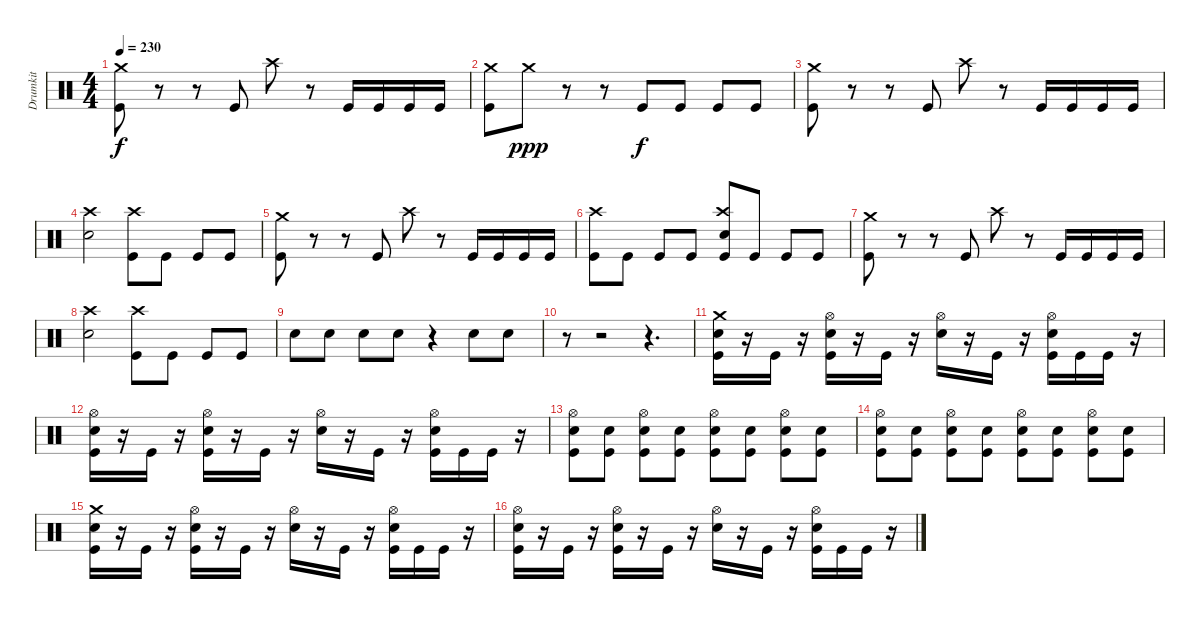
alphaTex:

\track ("Drumkit" "Drumkit") {instrument percussion}
\staff {score}
\articulation defaults
\ts (4 4)
\tempo 230
\clef neutral
\ks c
("Crash medium (hit)" "Kick (hit)").8{dy f} r.8 r.8 "Kick (hit)".8 "Crash high (hit)".8 r.8 "Kick (hit)".16 "Kick (hit)".16 "Kick (hit)".16 "Kick (hit)".16 |
("Crash medium (hit)" "Kick (hit)").8 "Crash medium (hit)".8{dy ppp} r.8 r.8 "Kick (hit)".8{dy f} "Kick (hit)".8 "Kick (hit)".8 "Kick (hit)".8 |
("Crash medium (hit)" "Kick (hit)").8 r.8 r.8 "Kick (hit)".8 "Crash high (hit)".8 r.8 "Kick (hit)".16 "Kick (hit)".16 "Kick (hit)".16 "Kick (hit)".16 |
("Crash high (hit)" "Snare (hit) 2").2 ("Crash high (hit)" "Kick (hit)").8 "Kick (hit)".8 "Kick (hit)".8 "Kick (hit)".8 |
("Crash medium (hit)" "Kick (hit)").8 r.8 r.8 "Kick (hit)".8 "Crash high (hit)".8 r.8 "Kick (hit)".16 "Kick (hit)".16 "Kick (hit)".16 "Kick (hit)".16 |
("Crash high (hit)" "Kick (hit)").8 "Kick (hit)".8 "Kick (hit)".8 "Kick (hit)".8 ("Crash high (hit)" "Snare (hit) 2" "Kick (hit)").8 "Kick (hit)".8 "Kick (hit)".8 "Kick (hit)".8 |
("Crash medium (hit)" "Kick (hit)").8 r.8 r.8 "Kick (hit)".8 "Crash high (hit)".8 r.8 "Kick (hit)".16 "Kick (hit)".16 "Kick (hit)".16 "Kick (hit)".16 |
("Crash high (hit)" "Snare (hit) 2").2 ("Crash high (hit)" "Kick (hit)").8 "Kick (hit)".8 "Kick (hit)".8 "Kick (hit)".8 |
"Snare (hit) 2".8 "Snare (hit) 2".8 "Snare (hit) 2".8 "Snare (hit) 2".8 r.4 "Snare (hit) 2".8 "Snare (hit) 2".8 |
r.8 r.2 r.4{d} |
("Crash medium (hit)" "Snare (hit) 2" "Kick (hit)").16 r.16 "Kick (hit)".16 r.16 ("Hi-Hat (open)" "Snare (hit) 2" "Kick (hit)").16 r.16 "Kick (hit)".16 r.16 ("Hi-Hat (open)" "Snare (hit) 2").16 r.16 "Kick (hit)".16 r.16 ("Hi-Hat (open)" "Snare (hit) 2" "Kick (hit)").16 "Kick (hit)".16 "Kick (hit)".16 r.16 |
("Hi-Hat (open)" "Snare (hit) 2" "Kick (hit)").16 r.16 "Kick (hit)".16 r.16 ("Hi-Hat (open)" "Snare (hit) 2" "Kick (hit)").16 r.16 "Kick (hit)".16 r.16 ("Hi-Hat (open)" "Snare (hit) 2").16 r.16 "Kick (hit)".16 r.16 ("Hi-Hat (open)" "Snare (hit) 2" "Kick (hit)").16 "Kick (hit)".16 "Kick (hit)".16 r.16 |
("Hi-Hat (open)" "Snare (hit) 2" "Kick (hit)").8 ("Snare (hit) 2" "Kick (hit)").8 ("Hi-Hat (open)" "Snare (hit) 2" "Kick (hit)").8 ("Snare (hit) 2" "Kick (hit)").8 ("Hi-Hat (open)" "Snare (hit) 2" "Kick (hit)").8 ("Snare (hit) 2" "Kick (hit)").8 ("Hi-Hat (open)" "Snare (hit) 2" "Kick (hit)").8 ("Snare (hit) 2" "Kick (hit)").8 |
("Hi-Hat (open)" "Snare (hit) 2" "Kick (hit)").8 ("Snare (hit) 2" "Kick (hit)").8 ("Hi-Hat (open)" "Snare (hit) 2" "Kick (hit)").8 ("Snare (hit) 2" "Kick (hit)").8 ("Hi-Hat (open)" "Snare (hit) 2" "Kick (hit)").8 ("Snare (hit) 2" "Kick (hit)").8 ("Hi-Hat (open)" "Snare (hit) 2" "Kick (hit)").8 ("Snare (hit) 2" "Kick (hit)").8 |
("Crash medium (hit)" "Snare (hit) 2" "Kick (hit)").16 r.16 "Kick (hit)".16 r.16 ("Hi-Hat (open)" "Snare (hit) 2" "Kick (hit)").16 r.16 "Kick (hit)".16 r.16 ("Hi-Hat (open)" "Snare (hit) 2").16 r.16 "Kick (hit)".16 r.16 ("Hi-Hat (open)" "Snare (hit) 2" "Kick (hit)").16 "Kick (hit)".16 "Kick (hit)".16 r.16 |
("Hi-Hat (open)" "Snare (hit) 2" "Kick (hit)").16 r.16 "Kick (hit)".16 r.16 ("Hi-Hat (open)" "Snare (hit) 2" "Kick (hit)").16 r.16 "Kick (hit)".16 r.16 ("Hi-Hat (open)" "Snare (hit) 2").16 r.16 "Kick (hit)".16 r.16 ("Hi-Hat (open)" "Snare (hit) 2" "Kick (hit)").16 "Kick (hit)".16 "Kick (hit)".16 r.16
